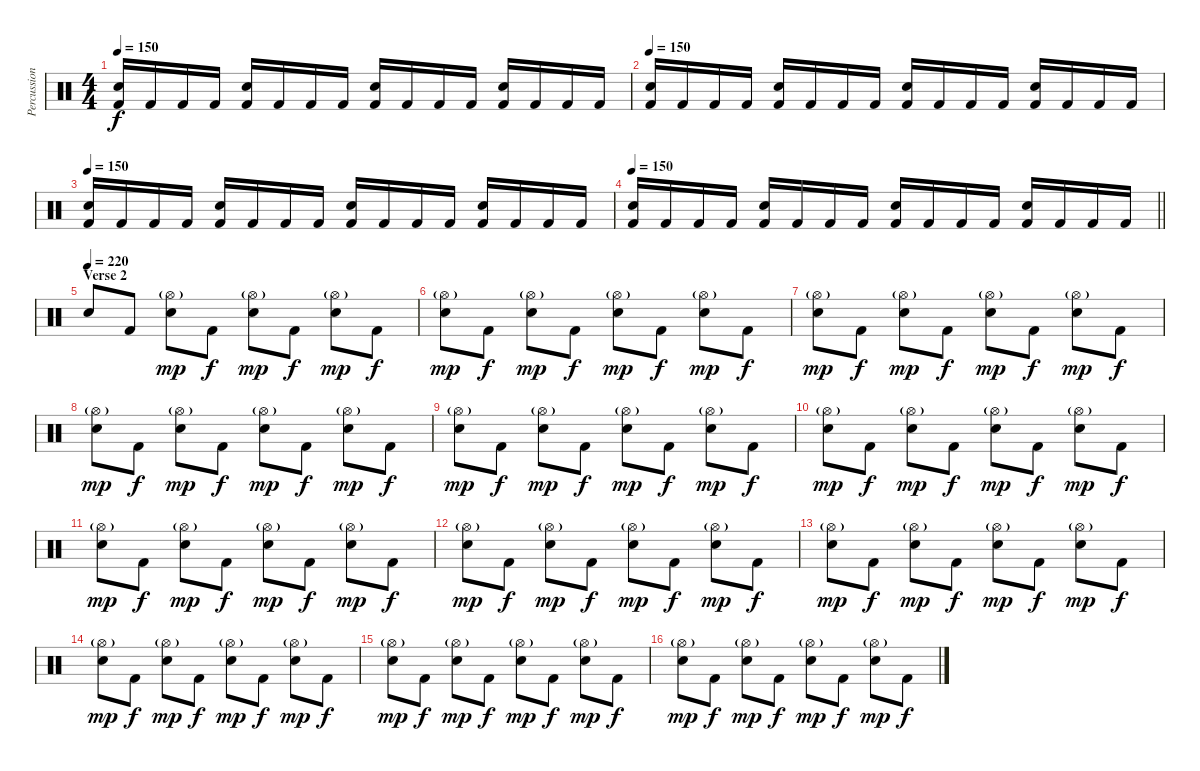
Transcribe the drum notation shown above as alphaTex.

\track ("Percussions" "Percussion") {instrument percussion}
\staff {score}
\articulation defaults
\ts (4 4)
\tempo 150
\clef neutral
\ks c
("Electric Snare (hit)" "Kick (hit) 2").16{dy f} "Kick (hit) 2".16 "Kick (hit) 2".16 "Kick (hit) 2".16 ("Electric Snare (hit)" "Kick (hit) 2").16 "Kick (hit) 2".16 "Kick (hit) 2".16 "Kick (hit) 2".16 ("Electric Snare (hit)" "Kick (hit) 2").16 "Kick (hit) 2".16 "Kick (hit) 2".16 "Kick (hit) 2".16 ("Electric Snare (hit)" "Kick (hit) 2").16 "Kick (hit) 2".16 "Kick (hit) 2".16 "Kick (hit) 2".16 |
\tempo 150
("Electric Snare (hit)" "Kick (hit) 2").16 "Kick (hit) 2".16 "Kick (hit) 2".16 "Kick (hit) 2".16 ("Electric Snare (hit)" "Kick (hit) 2").16 "Kick (hit) 2".16 "Kick (hit) 2".16 "Kick (hit) 2".16 ("Electric Snare (hit)" "Kick (hit) 2").16 "Kick (hit) 2".16 "Kick (hit) 2".16 "Kick (hit) 2".16 ("Electric Snare (hit)" "Kick (hit) 2").16 "Kick (hit) 2".16 "Kick (hit) 2".16 "Kick (hit) 2".16 |
\tempo 150
("Electric Snare (hit)" "Kick (hit) 2").16 "Kick (hit) 2".16 "Kick (hit) 2".16 "Kick (hit) 2".16 ("Electric Snare (hit)" "Kick (hit) 2").16 "Kick (hit) 2".16 "Kick (hit) 2".16 "Kick (hit) 2".16 ("Electric Snare (hit)" "Kick (hit) 2").16 "Kick (hit) 2".16 "Kick (hit) 2".16 "Kick (hit) 2".16 ("Electric Snare (hit)" "Kick (hit) 2").16 "Kick (hit) 2".16 "Kick (hit) 2".16 "Kick (hit) 2".16 |
\tempo 150
\barLineRight lightlight
("Electric Snare (hit)" "Kick (hit) 2").16 "Kick (hit) 2".16 "Kick (hit) 2".16 "Kick (hit) 2".16 ("Electric Snare (hit)" "Kick (hit) 2").16 "Kick (hit) 2".16 "Kick (hit) 2".16 "Kick (hit) 2".16 ("Electric Snare (hit)" "Kick (hit) 2").16 "Kick (hit) 2".16 "Kick (hit) 2".16 "Kick (hit) 2".16 ("Electric Snare (hit)" "Kick (hit) 2").16 "Kick (hit) 2".16 "Kick (hit) 2".16 "Kick (hit) 2".16 |
\section ("" "Verse 2")
\tempo (220)
"Electric Snare (hit)".8 "Kick (hit) 2".8 ("Hi-Hat (open)"{g} "Electric Snare (hit)").8{dy mp} "Kick (hit) 2".8{dy f} ("Hi-Hat (open)"{g} "Electric Snare (hit)").8{dy mp} "Kick (hit) 2".8{dy f} ("Hi-Hat (open)"{g} "Electric Snare (hit)").8{dy mp} "Kick (hit) 2".8{dy f} |
("Hi-Hat (open)"{g} "Electric Snare (hit)").8{dy mp} "Kick (hit) 2".8{dy f} ("Hi-Hat (open)"{g} "Electric Snare (hit)").8{dy mp} "Kick (hit) 2".8{dy f} ("Hi-Hat (open)"{g} "Electric Snare (hit)").8{dy mp} "Kick (hit) 2".8{dy f} ("Hi-Hat (open)"{g} "Electric Snare (hit)").8{dy mp} "Kick (hit) 2".8{dy f} |
("Hi-Hat (open)"{g} "Electric Snare (hit)").8{dy mp} "Kick (hit) 2".8{dy f} ("Hi-Hat (open)"{g} "Electric Snare (hit)").8{dy mp} "Kick (hit) 2".8{dy f} ("Hi-Hat (open)"{g} "Electric Snare (hit)").8{dy mp} "Kick (hit) 2".8{dy f} ("Hi-Hat (open)"{g} "Electric Snare (hit)").8{dy mp} "Kick (hit) 2".8{dy f} |
("Hi-Hat (open)"{g} "Electric Snare (hit)").8{dy mp} "Kick (hit) 2".8{dy f} ("Hi-Hat (open)"{g} "Electric Snare (hit)").8{dy mp} "Kick (hit) 2".8{dy f} ("Hi-Hat (open)"{g} "Electric Snare (hit)").8{dy mp} "Kick (hit) 2".8{dy f} ("Hi-Hat (open)"{g} "Electric Snare (hit)").8{dy mp} "Kick (hit) 2".8{dy f} |
("Hi-Hat (open)"{g} "Electric Snare (hit)").8{dy mp} "Kick (hit) 2".8{dy f} ("Hi-Hat (open)"{g} "Electric Snare (hit)").8{dy mp} "Kick (hit) 2".8{dy f} ("Hi-Hat (open)"{g} "Electric Snare (hit)").8{dy mp} "Kick (hit) 2".8{dy f} ("Hi-Hat (open)"{g} "Electric Snare (hit)").8{dy mp} "Kick (hit) 2".8{dy f} |
("Hi-Hat (open)"{g} "Electric Snare (hit)").8{dy mp} "Kick (hit) 2".8{dy f} ("Hi-Hat (open)"{g} "Electric Snare (hit)").8{dy mp} "Kick (hit) 2".8{dy f} ("Hi-Hat (open)"{g} "Electric Snare (hit)").8{dy mp} "Kick (hit) 2".8{dy f} ("Hi-Hat (open)"{g} "Electric Snare (hit)").8{dy mp} "Kick (hit) 2".8{dy f} |
("Hi-Hat (open)"{g} "Electric Snare (hit)").8{dy mp} "Kick (hit) 2".8{dy f} ("Hi-Hat (open)"{g} "Electric Snare (hit)").8{dy mp} "Kick (hit) 2".8{dy f} ("Hi-Hat (open)"{g} "Electric Snare (hit)").8{dy mp} "Kick (hit) 2".8{dy f} ("Hi-Hat (open)"{g} "Electric Snare (hit)").8{dy mp} "Kick (hit) 2".8{dy f} |
("Hi-Hat (open)"{g} "Electric Snare (hit)").8{dy mp} "Kick (hit) 2".8{dy f} ("Hi-Hat (open)"{g} "Electric Snare (hit)").8{dy mp} "Kick (hit) 2".8{dy f} ("Hi-Hat (open)"{g} "Electric Snare (hit)").8{dy mp} "Kick (hit) 2".8{dy f} ("Hi-Hat (open)"{g} "Electric Snare (hit)").8{dy mp} "Kick (hit) 2".8{dy f} |
("Hi-Hat (open)"{g} "Electric Snare (hit)").8{dy mp} "Kick (hit) 2".8{dy f} ("Hi-Hat (open)"{g} "Electric Snare (hit)").8{dy mp} "Kick (hit) 2".8{dy f} ("Hi-Hat (open)"{g} "Electric Snare (hit)").8{dy mp} "Kick (hit) 2".8{dy f} ("Hi-Hat (open)"{g} "Electric Snare (hit)").8{dy mp} "Kick (hit) 2".8{dy f} |
("Hi-Hat (open)"{g} "Electric Snare (hit)").8{dy mp} "Kick (hit) 2".8{dy f} ("Hi-Hat (open)"{g} "Electric Snare (hit)").8{dy mp} "Kick (hit) 2".8{dy f} ("Hi-Hat (open)"{g} "Electric Snare (hit)").8{dy mp} "Kick (hit) 2".8{dy f} ("Hi-Hat (open)"{g} "Electric Snare (hit)").8{dy mp} "Kick (hit) 2".8{dy f} |
("Hi-Hat (open)"{g} "Electric Snare (hit)").8{dy mp} "Kick (hit) 2".8{dy f} ("Hi-Hat (open)"{g} "Electric Snare (hit)").8{dy mp} "Kick (hit) 2".8{dy f} ("Hi-Hat (open)"{g} "Electric Snare (hit)").8{dy mp} "Kick (hit) 2".8{dy f} ("Hi-Hat (open)"{g} "Electric Snare (hit)").8{dy mp} "Kick (hit) 2".8{dy f} |
("Hi-Hat (open)"{g} "Electric Snare (hit)").8{dy mp} "Kick (hit) 2".8{dy f} ("Hi-Hat (open)"{g} "Electric Snare (hit)").8{dy mp} "Kick (hit) 2".8{dy f} ("Hi-Hat (open)"{g} "Electric Snare (hit)").8{dy mp} "Kick (hit) 2".8{dy f} ("Hi-Hat (open)"{g} "Electric Snare (hit)").8{dy mp} "Kick (hit) 2".8{dy f}
